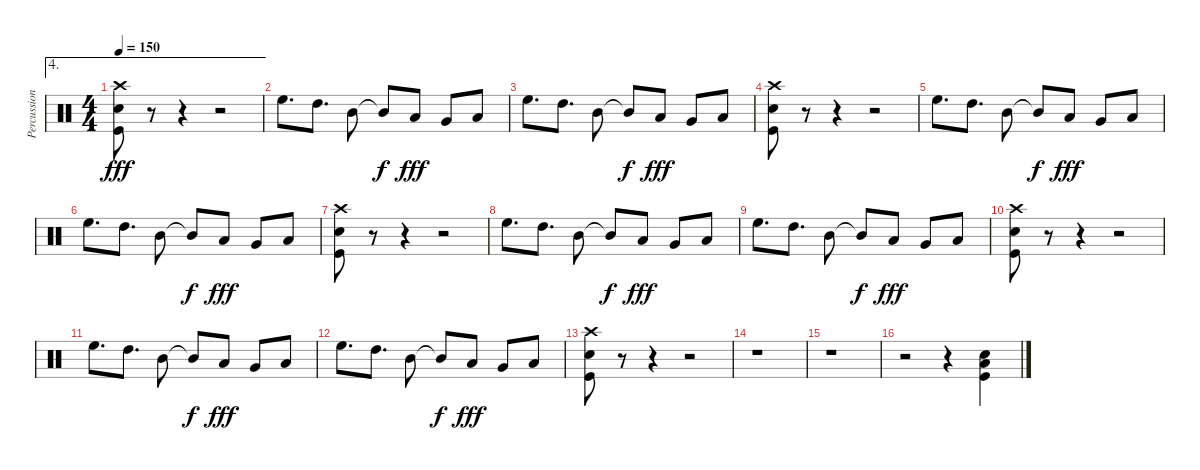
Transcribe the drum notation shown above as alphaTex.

\track ("Percussions" "Percussion") {instrument percussion}
\staff {score}
\articulation defaults
\ae 4
\ts (4 4)
\tempo 150
\clef neutral
\ks c
("Crash high (hit)" "Snare (hit) 2" "Kick (hit)").8{dy fff} r.8 r.4 r.2 |
"High Floor Tom (hit)".8{d} "High Tom (hit)".8{d} "Mid Tom (hit)".8 "Mid Tom (hit)"{t}.8{dy f} "Low Tom (hit)".8{dy fff} "Very Low Tom (hit)".8 "Low Floor Tom (hit)".8 |
"High Floor Tom (hit)".8{d} "High Tom (hit)".8{d} "Mid Tom (hit)".8 "Mid Tom (hit)"{t}.8{dy f} "Low Tom (hit)".8{dy fff} "Very Low Tom (hit)".8 "Low Floor Tom (hit)".8 |
("Crash high (hit)" "Snare (hit) 2" "Kick (hit)").8 r.8 r.4 r.2 |
"High Floor Tom (hit)".8{d} "High Tom (hit)".8{d} "Mid Tom (hit)".8 "Mid Tom (hit)"{t}.8{dy f} "Low Tom (hit)".8{dy fff} "Very Low Tom (hit)".8 "Low Floor Tom (hit)".8 |
"High Floor Tom (hit)".8{d} "High Tom (hit)".8{d} "Mid Tom (hit)".8 "Mid Tom (hit)"{t}.8{dy f} "Low Tom (hit)".8{dy fff} "Very Low Tom (hit)".8 "Low Floor Tom (hit)".8 |
("Crash high (hit)" "Snare (hit) 2" "Kick (hit)").8 r.8 r.4 r.2 |
"High Floor Tom (hit)".8{d} "High Tom (hit)".8{d} "Mid Tom (hit)".8 "Mid Tom (hit)"{t}.8{dy f} "Low Tom (hit)".8{dy fff} "Very Low Tom (hit)".8 "Low Floor Tom (hit)".8 |
"High Floor Tom (hit)".8{d} "High Tom (hit)".8{d} "Mid Tom (hit)".8 "Mid Tom (hit)"{t}.8{dy f} "Low Tom (hit)".8{dy fff} "Very Low Tom (hit)".8 "Low Floor Tom (hit)".8 |
("Crash high (hit)" "Snare (hit) 2" "Kick (hit)").8 r.8 r.4 r.2 |
"High Floor Tom (hit)".8{d} "High Tom (hit)".8{d} "Mid Tom (hit)".8 "Mid Tom (hit)"{t}.8{dy f} "Low Tom (hit)".8{dy fff} "Very Low Tom (hit)".8 "Low Floor Tom (hit)".8 |
"High Floor Tom (hit)".8{d} "High Tom (hit)".8{d} "Mid Tom (hit)".8 "Mid Tom (hit)"{t}.8{dy f} "Low Tom (hit)".8{dy fff} "Very Low Tom (hit)".8 "Low Floor Tom (hit)".8 |
("Crash high (hit)" "Snare (hit) 2" "Kick (hit)").8 r.8 r.4 r.2 |
r.1 |
r.1 |
r.2 r.4 ("Low Floor Tom (hit)" "Snare (hit) 2" "Kick (hit)").4
